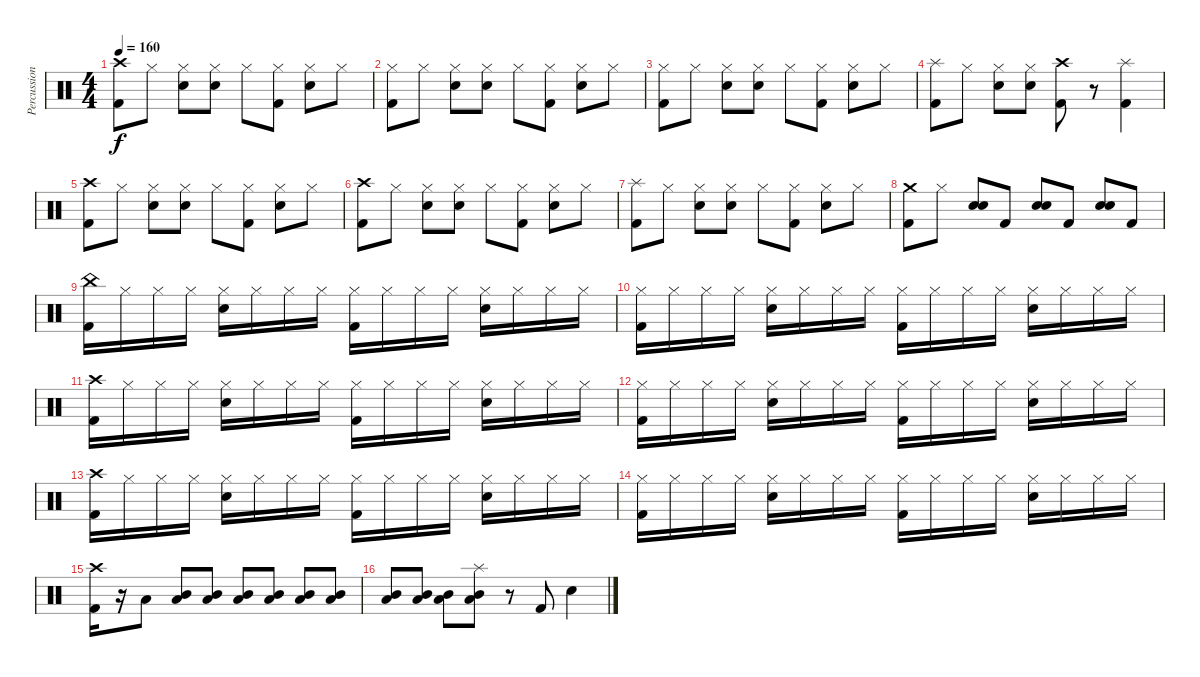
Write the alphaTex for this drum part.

\track ("Percussion" "Percussion") {instrument percussion}
\staff {score}
\articulation defaults
\ts (4 4)
\tempo 160
\clef neutral
\ks c
("Crash high (hit)" "Kick (hit) 2").8{dy f} "Hi-Hat (closed)".8 ("Hi-Hat (closed)" "Snare (hit) 2").8 ("Hi-Hat (closed)" "Snare (hit) 2").8 "Hi-Hat (closed)".8 ("Hi-Hat (closed)" "Kick (hit) 2").8 ("Hi-Hat (closed)" "Snare (hit) 2").8 "Hi-Hat (closed)".8 |
("Hi-Hat (closed)" "Kick (hit) 2").8 "Hi-Hat (closed)".8 ("Hi-Hat (closed)" "Snare (hit) 2").8 ("Hi-Hat (closed)" "Snare (hit) 2").8 "Hi-Hat (closed)".8 ("Hi-Hat (closed)" "Kick (hit) 2").8 ("Hi-Hat (closed)" "Snare (hit) 2").8 "Hi-Hat (closed)".8 |
("Hi-Hat (closed)" "Kick (hit) 2").8 "Hi-Hat (closed)".8 ("Hi-Hat (closed)" "Snare (hit) 2").8 ("Hi-Hat (closed)" "Snare (hit) 2").8 "Hi-Hat (closed)".8 ("Hi-Hat (closed)" "Kick (hit) 2").8 ("Hi-Hat (closed)" "Snare (hit) 2").8 "Hi-Hat (closed)".8 |
("Splash (hit)" "Kick (hit) 2").8 "Hi-Hat (closed)".8 ("Hi-Hat (closed)" "Snare (hit) 2").8 ("Hi-Hat (closed)" "Snare (hit) 2").8 ("Crash high (hit)" "Kick (hit) 2").8 r.8 ("Splash (hit)" "Kick (hit) 2").4 |
("Crash high (hit)" "Kick (hit) 2").8 "Hi-Hat (closed)".8 ("Hi-Hat (closed)" "Snare (hit) 2").8 ("Hi-Hat (closed)" "Snare (hit) 2").8 "Hi-Hat (closed)".8 ("Hi-Hat (closed)" "Kick (hit) 2").8 ("Hi-Hat (closed)" "Snare (hit) 2").8 "Hi-Hat (closed)".8 |
("Crash high (hit)" "Kick (hit) 2").8 "Hi-Hat (closed)".8 ("Hi-Hat (closed)" "Snare (hit) 2").8 ("Hi-Hat (closed)" "Snare (hit) 2").8 "Hi-Hat (closed)".8 ("Hi-Hat (closed)" "Kick (hit) 2").8 ("Hi-Hat (closed)" "Snare (hit) 2").8 "Hi-Hat (closed)".8 |
("Splash (hit)" "Kick (hit) 2").8 "Hi-Hat (closed)".8 ("Hi-Hat (closed)" "Snare (hit) 2").8 ("Hi-Hat (closed)" "Snare (hit) 2").8 "Hi-Hat (closed)".8 ("Hi-Hat (closed)" "Kick (hit) 2").8 ("Hi-Hat (closed)" "Snare (hit) 2").8 "Hi-Hat (closed)".8 |
("Crash medium (hit)" "Kick (hit) 2").8 "Hi-Hat (closed)".8 ("Snare (hit) 2" "Snare (hit) 2").8 "Kick (hit) 2".8 ("Snare (hit) 2" "Snare (hit) 2").8 "Kick (hit) 2".8 ("Snare (hit) 2" "Snare (hit) 2").8 "Kick (hit) 2".8 |
("China (hit)" "Kick (hit) 2").16 "Hi-Hat (closed)".16 "Hi-Hat (closed)".16 "Hi-Hat (closed)".16 ("Hi-Hat (closed)" "Snare (hit) 2").16 "Hi-Hat (closed)".16 "Hi-Hat (closed)".16 "Hi-Hat (closed)".16 ("Hi-Hat (closed)" "Kick (hit) 2").16 "Hi-Hat (closed)".16 "Hi-Hat (closed)".16 "Hi-Hat (closed)".16 ("Hi-Hat (closed)" "Snare (hit) 2").16 "Hi-Hat (closed)".16 "Hi-Hat (closed)".16 "Hi-Hat (closed)".16 |
("Hi-Hat (closed)" "Kick (hit) 2").16 "Hi-Hat (closed)".16 "Hi-Hat (closed)".16 "Hi-Hat (closed)".16 ("Hi-Hat (closed)" "Snare (hit) 2").16 "Hi-Hat (closed)".16 "Hi-Hat (closed)".16 "Hi-Hat (closed)".16 ("Hi-Hat (closed)" "Kick (hit) 2").16 "Hi-Hat (closed)".16 "Hi-Hat (closed)".16 "Hi-Hat (closed)".16 ("Hi-Hat (closed)" "Snare (hit) 2").16 "Hi-Hat (closed)".16 "Hi-Hat (closed)".16 "Hi-Hat (closed)".16 |
("Crash high (hit)" "Kick (hit) 2").16 "Hi-Hat (closed)".16 "Hi-Hat (closed)".16 "Hi-Hat (closed)".16 ("Hi-Hat (closed)" "Snare (hit) 2").16 "Hi-Hat (closed)".16 "Hi-Hat (closed)".16 "Hi-Hat (closed)".16 ("Hi-Hat (closed)" "Kick (hit) 2").16 "Hi-Hat (closed)".16 "Hi-Hat (closed)".16 "Hi-Hat (closed)".16 ("Hi-Hat (closed)" "Snare (hit) 2").16 "Hi-Hat (closed)".16 "Hi-Hat (closed)".16 "Hi-Hat (closed)".16 |
("Hi-Hat (closed)" "Kick (hit) 2").16 "Hi-Hat (closed)".16 "Hi-Hat (closed)".16 "Hi-Hat (closed)".16 ("Hi-Hat (closed)" "Snare (hit) 2").16 "Hi-Hat (closed)".16 "Hi-Hat (closed)".16 "Hi-Hat (closed)".16 ("Hi-Hat (closed)" "Kick (hit) 2").16 "Hi-Hat (closed)".16 "Hi-Hat (closed)".16 "Hi-Hat (closed)".16 ("Hi-Hat (closed)" "Snare (hit) 2").16 "Hi-Hat (closed)".16 "Hi-Hat (closed)".16 "Hi-Hat (closed)".16 |
("Crash high (hit)" "Kick (hit) 2").16 "Hi-Hat (closed)".16 "Hi-Hat (closed)".16 "Hi-Hat (closed)".16 ("Hi-Hat (closed)" "Snare (hit) 2").16 "Hi-Hat (closed)".16 "Hi-Hat (closed)".16 "Hi-Hat (closed)".16 ("Hi-Hat (closed)" "Kick (hit) 2").16 "Hi-Hat (closed)".16 "Hi-Hat (closed)".16 "Hi-Hat (closed)".16 ("Hi-Hat (closed)" "Snare (hit) 2").16 "Hi-Hat (closed)".16 "Hi-Hat (closed)".16 "Hi-Hat (closed)".16 |
("Hi-Hat (closed)" "Kick (hit) 2").16 "Hi-Hat (closed)".16 "Hi-Hat (closed)".16 "Hi-Hat (closed)".16 ("Hi-Hat (closed)" "Snare (hit) 2").16 "Hi-Hat (closed)".16 "Hi-Hat (closed)".16 "Hi-Hat (closed)".16 ("Hi-Hat (closed)" "Kick (hit) 2").16 "Hi-Hat (closed)".16 "Hi-Hat (closed)".16 "Hi-Hat (closed)".16 ("Hi-Hat (closed)" "Snare (hit) 2").16 "Hi-Hat (closed)".16 "Hi-Hat (closed)".16 "Hi-Hat (closed)".16 |
("Crash high (hit)" "Kick (hit) 2").16 r.16 "Low Tom (hit)".8 ("Mid Tom (hit)" "Low Tom (hit)").8 ("Mid Tom (hit)" "Low Tom (hit)").8 ("Mid Tom (hit)" "Low Tom (hit)").8 ("Mid Tom (hit)" "Low Tom (hit)").8 ("Mid Tom (hit)" "Low Tom (hit)").8 ("Mid Tom (hit)" "Low Tom (hit)").8 |
("Mid Tom (hit)" "Low Tom (hit)").8 ("Mid Tom (hit)" "Low Tom (hit)").8 ("Mid Tom (hit)" "Low Tom (hit)").8 ("Splash (hit)" "Mid Tom (hit)" "Low Tom (hit)").8 r.8 "Kick (hit) 2".8 "Snare (hit) 2".4
